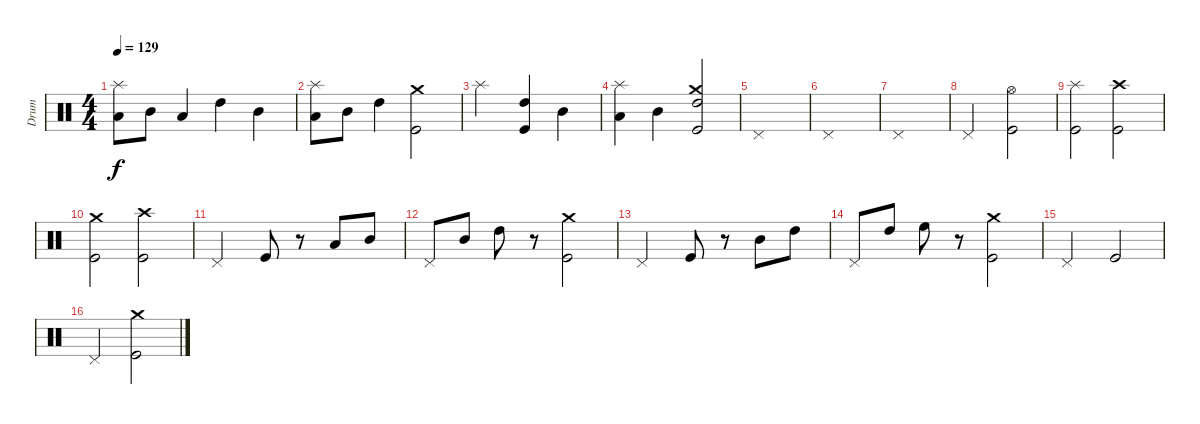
\track ("Drum" "Drum") {instrument percussion}
\staff {score}
\articulation defaults
\ts (4 4)
\tempo 129
\clef neutral
\ks c
("Low Tom (hit)" "Splash (hit)").8{dy f} "Mid Tom (hit)".8 "Low Tom (hit)".4 "High Tom (hit)".4 "Mid Tom (hit)".4 |
("Low Tom (hit)" "Splash (hit)").8 "Mid Tom (hit)".8 "High Tom (hit)".4 ("Crash medium (hit)" "Kick (hit)").2 |
"Splash (hit)".2 ("High Tom (hit)" "Kick (hit)").4 "Mid Tom (hit)".4 |
("Low Tom (hit)" "Splash (hit)").4 "Mid Tom (hit)".4 ("Crash medium (hit)" "High Tom (hit)" "Kick (hit)").2 |
"Pedal Hi-Hat (hit)".1 |
"Pedal Hi-Hat (hit)".1 |
"Pedal Hi-Hat (hit)".1 |
"Pedal Hi-Hat (hit)".2 ("Hi-Hat (open)" "Kick (hit)").2 |
("Splash (hit)" "Kick (hit)").2 ("Crash high (hit)" "Kick (hit)").2 |
("Crash medium (hit)" "Kick (hit)").2 ("Crash high (hit)" "Kick (hit)").2 |
"Pedal Hi-Hat (hit)".2 "Kick (hit)".8 r.8 "Low Tom (hit)".8 "Mid Tom (hit)".8 |
"Pedal Hi-Hat (hit)".8 "Mid Tom (hit)".8 "High Tom (hit)".8 r.8 ("Crash medium (hit)" "Kick (hit)").2 |
"Pedal Hi-Hat (hit)".2 "Kick (hit)".8 r.8 "Mid Tom (hit)".8 "High Tom (hit)".8 |
"Pedal Hi-Hat (hit)".8 "High Tom (hit)".8 "High Floor Tom (hit)".8 r.8 ("Crash medium (hit)" "Kick (hit)").2 |
"Pedal Hi-Hat (hit)".2 "Kick (hit)".2 |
"Pedal Hi-Hat (hit)".2 ("Crash medium (hit)" "Kick (hit)").2
